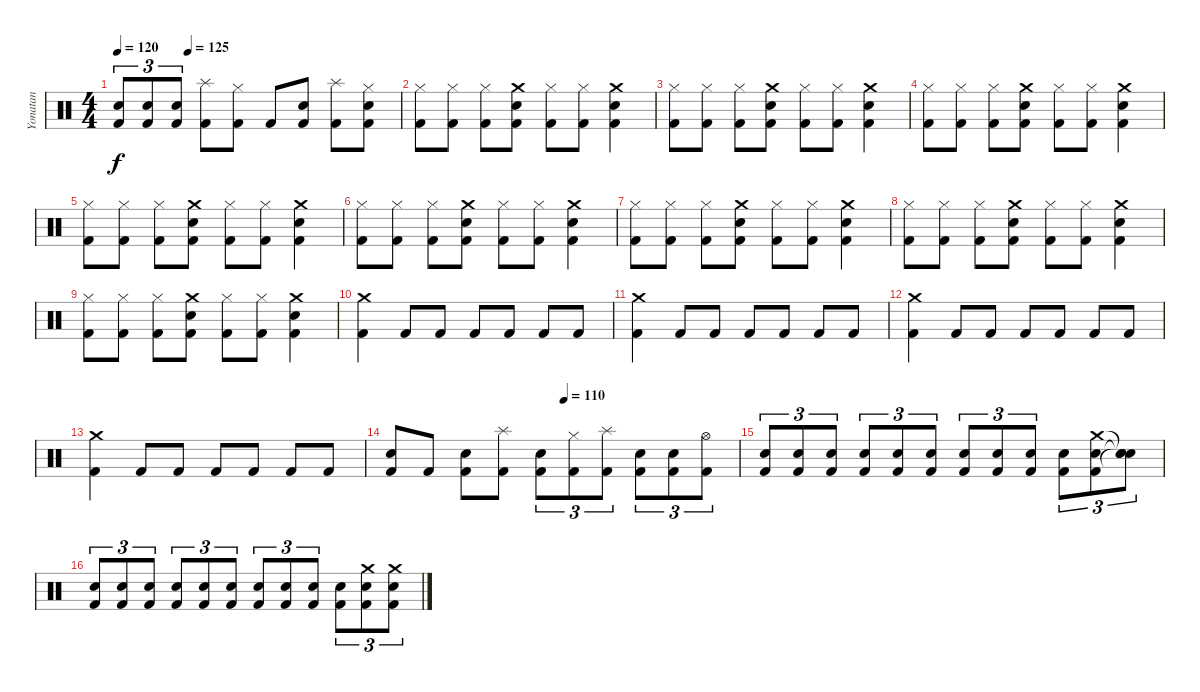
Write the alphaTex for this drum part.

\track ("Yonatan" "Yonatan") {instrument percussion}
\staff {score}
\articulation defaults
\ts (4 4)
\tempo 120
\tempo (125 0.25)
\clef neutral
\ks c
("Kick (hit) 2" "Snare (hit) 2").8{tu (3 2) dy f} ("Kick (hit) 2" "Snare (hit) 2").8{tu (3 2)} ("Kick (hit) 2" "Snare (hit) 2").8{tu (3 2)} ("Kick (hit) 2" "Splash (hit)").8 ("Kick (hit) 2" "Hi-Hat (closed)").8 "Kick (hit) 2".8 ("Kick (hit) 2" "Snare (hit) 2").8 ("Kick (hit) 2" "Splash (hit)").8 ("Kick (hit) 2" "Snare (hit) 2" "Hi-Hat (closed)").8 |
("Kick (hit) 2" "Hi-Hat (closed)").8 ("Kick (hit) 2" "Hi-Hat (closed)").8 ("Kick (hit) 2" "Hi-Hat (closed)").8 ("Kick (hit) 2" "Snare (hit) 2" "Crash medium (hit)").8 ("Kick (hit) 2" "Hi-Hat (closed)").8 ("Kick (hit) 2" "Hi-Hat (closed)").8 ("Kick (hit) 2" "Snare (hit) 2" "Crash medium (hit)").4 |
("Kick (hit) 2" "Hi-Hat (closed)").8 ("Kick (hit) 2" "Hi-Hat (closed)").8 ("Kick (hit) 2" "Hi-Hat (closed)").8 ("Kick (hit) 2" "Snare (hit) 2" "Crash medium (hit)").8 ("Kick (hit) 2" "Hi-Hat (closed)").8 ("Kick (hit) 2" "Hi-Hat (closed)").8 ("Kick (hit) 2" "Snare (hit) 2" "Crash medium (hit)").4 |
("Kick (hit) 2" "Hi-Hat (closed)").8 ("Kick (hit) 2" "Hi-Hat (closed)").8 ("Kick (hit) 2" "Hi-Hat (closed)").8 ("Kick (hit) 2" "Snare (hit) 2" "Crash medium (hit)").8 ("Kick (hit) 2" "Hi-Hat (closed)").8 ("Kick (hit) 2" "Hi-Hat (closed)").8 ("Kick (hit) 2" "Snare (hit) 2" "Crash medium (hit)").4 |
("Kick (hit) 2" "Hi-Hat (closed)").8 ("Kick (hit) 2" "Hi-Hat (closed)").8 ("Kick (hit) 2" "Hi-Hat (closed)").8 ("Kick (hit) 2" "Snare (hit) 2" "Crash medium (hit)").8 ("Kick (hit) 2" "Hi-Hat (closed)").8 ("Kick (hit) 2" "Hi-Hat (closed)").8 ("Kick (hit) 2" "Snare (hit) 2" "Crash medium (hit)").4 |
("Kick (hit) 2" "Hi-Hat (closed)").8 ("Kick (hit) 2" "Hi-Hat (closed)").8 ("Kick (hit) 2" "Hi-Hat (closed)").8 ("Kick (hit) 2" "Snare (hit) 2" "Crash medium (hit)").8 ("Kick (hit) 2" "Hi-Hat (closed)").8 ("Kick (hit) 2" "Hi-Hat (closed)").8 ("Kick (hit) 2" "Snare (hit) 2" "Crash medium (hit)").4 |
("Kick (hit) 2" "Hi-Hat (closed)").8 ("Kick (hit) 2" "Hi-Hat (closed)").8 ("Kick (hit) 2" "Hi-Hat (closed)").8 ("Kick (hit) 2" "Snare (hit) 2" "Crash medium (hit)").8 ("Kick (hit) 2" "Hi-Hat (closed)").8 ("Kick (hit) 2" "Hi-Hat (closed)").8 ("Kick (hit) 2" "Snare (hit) 2" "Crash medium (hit)").4 |
("Kick (hit) 2" "Hi-Hat (closed)").8 ("Kick (hit) 2" "Hi-Hat (closed)").8 ("Kick (hit) 2" "Hi-Hat (closed)").8 ("Kick (hit) 2" "Snare (hit) 2" "Crash medium (hit)").8 ("Kick (hit) 2" "Hi-Hat (closed)").8 ("Kick (hit) 2" "Hi-Hat (closed)").8 ("Kick (hit) 2" "Snare (hit) 2" "Crash medium (hit)").4 |
("Kick (hit) 2" "Hi-Hat (closed)").8 ("Kick (hit) 2" "Hi-Hat (closed)").8 ("Kick (hit) 2" "Hi-Hat (closed)").8 ("Kick (hit) 2" "Snare (hit) 2" "Crash medium (hit)").8 ("Kick (hit) 2" "Hi-Hat (closed)").8 ("Kick (hit) 2" "Hi-Hat (closed)").8 ("Kick (hit) 2" "Snare (hit) 2" "Crash medium (hit)").4 |
("Kick (hit) 2" "Crash medium (hit)").4 "Kick (hit) 2".8 "Kick (hit) 2".8 "Kick (hit) 2".8 "Kick (hit) 2".8 "Kick (hit) 2".8 "Kick (hit) 2".8 |
("Kick (hit) 2" "Crash medium (hit)").4 "Kick (hit) 2".8 "Kick (hit) 2".8 "Kick (hit) 2".8 "Kick (hit) 2".8 "Kick (hit) 2".8 "Kick (hit) 2".8 |
("Kick (hit) 2" "Crash medium (hit)").4 "Kick (hit) 2".8 "Kick (hit) 2".8 "Kick (hit) 2".8 "Kick (hit) 2".8 "Kick (hit) 2".8 "Kick (hit) 2".8 |
("Kick (hit) 2" "Crash medium (hit)").4 "Kick (hit) 2".8 "Kick (hit) 2".8 "Kick (hit) 2".8 "Kick (hit) 2".8 "Kick (hit) 2".8 "Kick (hit) 2".8 |
\tempo (110 0.5)
("Kick (hit) 2" "Snare (hit) 2").8 "Kick (hit) 2".8 ("Kick (hit) 2" "Snare (hit) 2").8 ("Kick (hit) 2" "Splash (hit)").8 ("Kick (hit) 2" "Snare (hit) 2").8{tu (3 2)} ("Kick (hit) 2" "Hi-Hat (closed)").8{tu (3 2)} ("Kick (hit) 2" "Splash (hit)").8{tu (3 2)} ("Kick (hit) 2" "Snare (hit) 2").8{tu (3 2)} ("Kick (hit) 2" "Snare (hit) 2").8{tu (3 2)} ("Kick (hit) 2" "Hi-Hat (open)").8{tu (3 2)} |
("Kick (hit) 2" "Snare (hit) 2").8{tu (3 2)} ("Kick (hit) 2" "Snare (hit) 2").8{tu (3 2)} ("Kick (hit) 2" "Snare (hit) 2").8{tu (3 2)} ("Kick (hit) 2" "Snare (hit) 2").8{tu (3 2)} ("Kick (hit) 2" "Snare (hit) 2").8{tu (3 2)} ("Kick (hit) 2" "Snare (hit) 2").8{tu (3 2)} ("Kick (hit) 2" "Snare (hit) 2").8{tu (3 2)} ("Kick (hit) 2" "Snare (hit) 2").8{tu (3 2)} ("Kick (hit) 2" "Snare (hit) 2").8{tu (3 2)} ("Kick (hit) 2" "Snare (hit) 2").8{tu (3 2)} ("Kick (hit) 2" "Snare (hit) 2" "Crash medium (hit)").8{tu (3 2)} ("Snare (hit)"{t} "Snare (hit)"{t} "Snare (hit)"{t}).8{tu (3 2)} |
("Kick (hit) 2" "Snare (hit) 2").8{tu (3 2)} ("Kick (hit) 2" "Snare (hit) 2").8{tu (3 2)} ("Kick (hit) 2" "Snare (hit) 2").8{tu (3 2)} ("Kick (hit) 2" "Snare (hit) 2").8{tu (3 2)} ("Kick (hit) 2" "Snare (hit) 2").8{tu (3 2)} ("Kick (hit) 2" "Snare (hit) 2").8{tu (3 2)} ("Kick (hit) 2" "Snare (hit) 2").8{tu (3 2)} ("Kick (hit) 2" "Snare (hit) 2").8{tu (3 2)} ("Kick (hit) 2" "Snare (hit) 2").8{tu (3 2)} ("Kick (hit) 2" "Snare (hit) 2").8{tu (3 2)} ("Kick (hit) 2" "Crash medium (hit)" "Snare (hit) 2").8{tu (3 2)} ("Kick (hit) 2" "Crash medium (hit)" "Snare (hit) 2").8{tu (3 2)}
